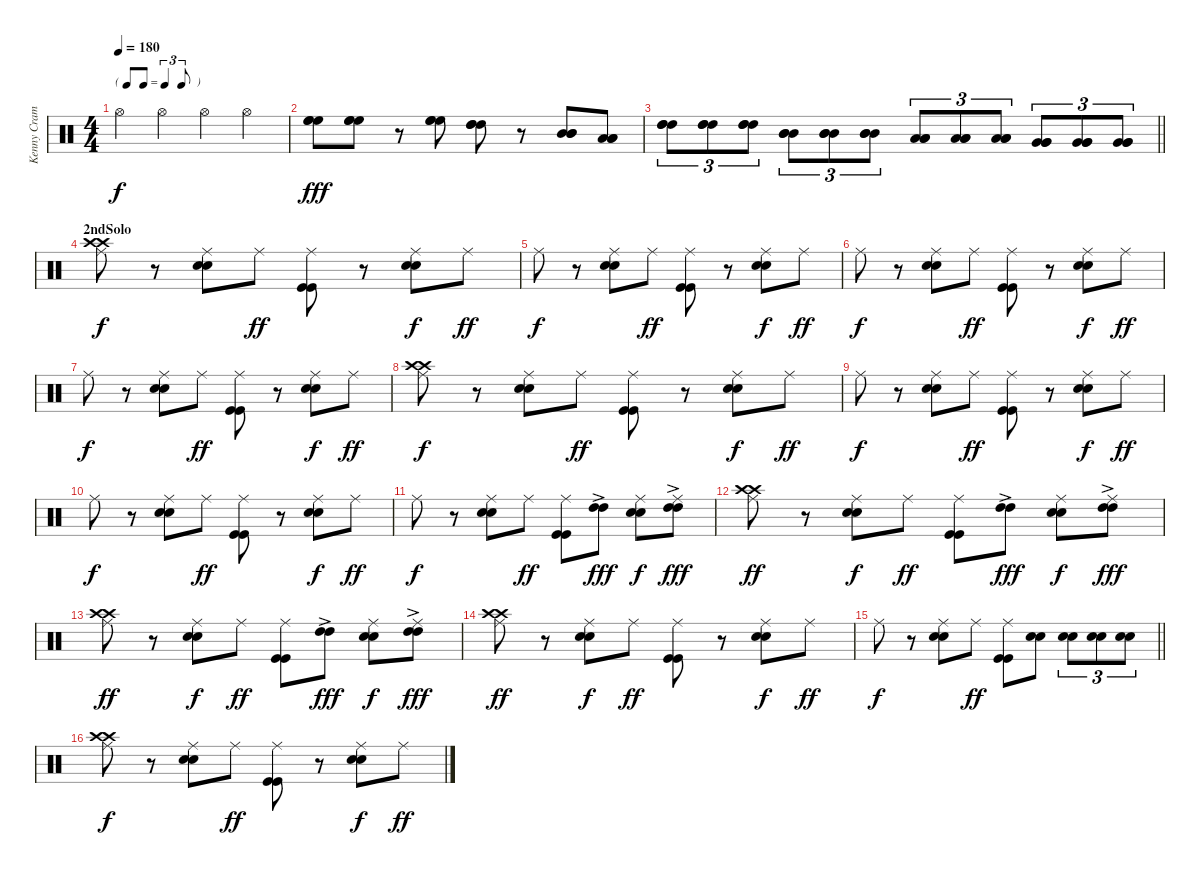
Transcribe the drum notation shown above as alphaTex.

\track ("Kenny Cramme" "Kenny Cram") {instrument percussion}
\staff {score}
\articulation defaults
\ts (4 4)
\tf triplet8th
\tempo 180
\clef neutral
\ks c "Hi-Hat (open)".4{dy f} "Hi-Hat (open)".4 "Hi-Hat (open)".4 "Hi-Hat (open)".4
|
("High Floor Tom (hit)" "High Floor Tom (hit)" "High Floor Tom (hit)").8{dy fff} ("High Floor Tom (hit)" "High Floor Tom (hit)" "High Floor Tom (hit)").8 r.8 ("High Floor Tom (hit)" "High Floor Tom (hit)" "High Floor Tom (hit)").8 ("High Tom (hit)" "High Tom (hit)" "High Tom (hit)").8 r.8 ("Mid Tom (hit)" "Mid Tom (hit)" "Mid Tom (hit)").8 ("Low Tom (hit)" "Low Tom (hit)" "Low Tom (hit)").8 |
\barLineRight lightlight
("High Tom (hit)" "High Tom (hit)" "High Tom (hit)").8{tu (3 2)} ("High Tom (hit)" "High Tom (hit)" "High Tom (hit)").8{tu (3 2)} ("High Tom (hit)" "High Tom (hit)" "High Tom (hit)").8{tu (3 2)} ("Mid Tom (hit)" "Mid Tom (hit)" "Mid Tom (hit)").8{tu (3 2)} ("Mid Tom (hit)" "Mid Tom (hit)" "Mid Tom (hit)").8{tu (3 2)} ("Mid Tom (hit)" "Mid Tom (hit)" "Mid Tom (hit)").8{tu (3 2)} ("Low Tom (hit)" "Low Tom (hit)" "Low Tom (hit)").8{tu (3 2)} ("Low Tom (hit)" "Low Tom (hit)" "Low Tom (hit)").8{tu (3 2)} ("Low Tom (hit)" "Low Tom (hit)" "Low Tom (hit)").8{tu (3 2)} ("Very Low Tom (hit)" "Very Low Tom (hit)" "Very Low Tom (hit)").8{tu (3 2)} ("Very Low Tom (hit)" "Very Low Tom (hit)" "Very Low Tom (hit)").8{tu (3 2)} ("Very Low Tom (hit)" "Very Low Tom (hit)" "Very Low Tom (hit)").8{tu (3 2)} |
\section ("" "2ndSolo")
("Ride (middle)" "Crash high (hit)" "Crash high (hit)").8{dy f} r.8 ("Ride (middle)" "Snare (hit) 2" "Snare (hit) 2").8 "Ride (middle)".8{dy ff} ("Ride (middle)" "Kick (hit)" "Kick (hit)").8 r.8 ("Ride (middle)" "Snare (hit) 2" "Snare (hit) 2").8{dy f} "Ride (middle)".8{dy ff} |
"Ride (middle)".8{dy f} r.8 ("Ride (middle)" "Snare (hit) 2" "Snare (hit) 2").8 "Ride (middle)".8{dy ff} ("Ride (middle)" "Kick (hit)" "Kick (hit)").8 r.8 ("Ride (middle)" "Snare (hit) 2" "Snare (hit) 2").8{dy f} "Ride (middle)".8{dy ff} |
"Ride (middle)".8{dy f} r.8 ("Ride (middle)" "Snare (hit) 2" "Snare (hit) 2").8 "Ride (middle)".8{dy ff} ("Ride (middle)" "Kick (hit)" "Kick (hit)").8 r.8 ("Ride (middle)" "Snare (hit) 2" "Snare (hit) 2").8{dy f} "Ride (middle)".8{dy ff} |
"Ride (middle)".8{dy f} r.8 ("Ride (middle)" "Snare (hit) 2" "Snare (hit) 2").8 "Ride (middle)".8{dy ff} ("Ride (middle)" "Kick (hit)" "Kick (hit)").8 r.8 ("Ride (middle)" "Snare (hit) 2" "Snare (hit) 2").8{dy f} "Ride (middle)".8{dy ff} |
("Ride (middle)" "Crash high (hit)" "Crash high (hit)").8{dy f} r.8 ("Ride (middle)" "Snare (hit) 2" "Snare (hit) 2").8 "Ride (middle)".8{dy ff} ("Ride (middle)" "Kick (hit)" "Kick (hit)").8 r.8 ("Ride (middle)" "Snare (hit) 2" "Snare (hit) 2").8{dy f} "Ride (middle)".8{dy ff} |
"Ride (middle)".8{dy f} r.8 ("Ride (middle)" "Snare (hit) 2" "Snare (hit) 2").8 "Ride (middle)".8{dy ff} ("Ride (middle)" "Kick (hit)" "Kick (hit)").8 r.8 ("Ride (middle)" "Snare (hit) 2" "Snare (hit) 2").8{dy f} "Ride (middle)".8{dy ff} |
"Ride (middle)".8{dy f} r.8 ("Ride (middle)" "Snare (hit) 2" "Snare (hit) 2").8 "Ride (middle)".8{dy ff} ("Ride (middle)" "Kick (hit)" "Kick (hit)").8 r.8 ("Ride (middle)" "Snare (hit) 2" "Snare (hit) 2").8{dy f} "Ride (middle)".8{dy ff} |
"Ride (middle)".8{dy f} r.8 ("Ride (middle)" "Snare (hit) 2" "Snare (hit) 2").8 "Ride (middle)".8{dy ff} ("Ride (middle)" "Kick (hit)" "Kick (hit)").8 ("High Tom (hit)"{ac} "High Tom (hit)"{ac}).8{dy fff} ("Ride (middle)" "Snare (hit) 2" "Snare (hit) 2").8{dy f} ("Ride (middle)" "High Tom (hit)"{ac} "High Tom (hit)"{ac}).8{dy fff} |
("Ride (middle)" "Crash high (hit)" "Crash high (hit)").8{dy ff} r.8 ("Ride (middle)" "Snare (hit) 2" "Snare (hit) 2").8{dy f} "Ride (middle)".8{dy ff} ("Ride (middle)" "Kick (hit)" "Kick (hit)").8 ("High Tom (hit)"{ac} "High Tom (hit)"{ac}).8{dy fff} ("Ride (middle)" "Snare (hit) 2" "Snare (hit) 2").8{dy f} ("Ride (middle)" "High Tom (hit)"{ac} "High Tom (hit)"{ac}).8{dy fff} |
("Ride (middle)" "Crash high (hit)" "Crash high (hit)").8{dy ff} r.8 ("Ride (middle)" "Snare (hit) 2" "Snare (hit) 2").8{dy f} "Ride (middle)".8{dy ff} ("Ride (middle)" "Kick (hit)" "Kick (hit)").8 ("High Tom (hit)"{ac} "High Tom (hit)"{ac}).8{dy fff} ("Ride (middle)" "Snare (hit) 2" "Snare (hit) 2").8{dy f} ("Ride (middle)" "High Tom (hit)"{ac} "High Tom (hit)"{ac}).8{dy fff} |
("Ride (middle)" "Crash high (hit)" "Crash high (hit)").8{dy ff} r.8 ("Ride (middle)" "Snare (hit) 2" "Snare (hit) 2").8{dy f} "Ride (middle)".8{dy ff} ("Ride (middle)" "Kick (hit)" "Kick (hit)").8 r.8 ("Ride (middle)" "Snare (hit) 2" "Snare (hit) 2").8{dy f} "Ride (middle)".8{dy ff} |
\barLineRight lightlight "Ride (middle)".8{dy f}
r.8 ("Ride (middle)" "Snare (hit) 2" "Snare (hit) 2").8 "Ride (middle)".8{dy ff} ("Ride (middle)" "Kick (hit)" "Kick (hit)").8 ("Snare (hit) 2" "Snare (hit) 2").8 ("Snare (hit) 2" "Snare (hit) 2").8{tu (3 2)} ("Snare (hit) 2" "Snare (hit) 2").8{tu (3 2)} ("Snare (hit) 2" "Snare (hit) 2").8{tu (3 2)} |
("Ride (middle)" "Crash high (hit)" "Crash high (hit)").8{dy f} r.8 ("Ride (middle)" "Snare (hit) 2" "Snare (hit) 2").8 "Ride (middle)".8{dy ff} ("Ride (middle)" "Kick (hit)" "Kick (hit)").8 r.8 ("Ride (middle)" "Snare (hit) 2" "Snare (hit) 2").8{dy f} "Ride (middle)".8{dy ff}
